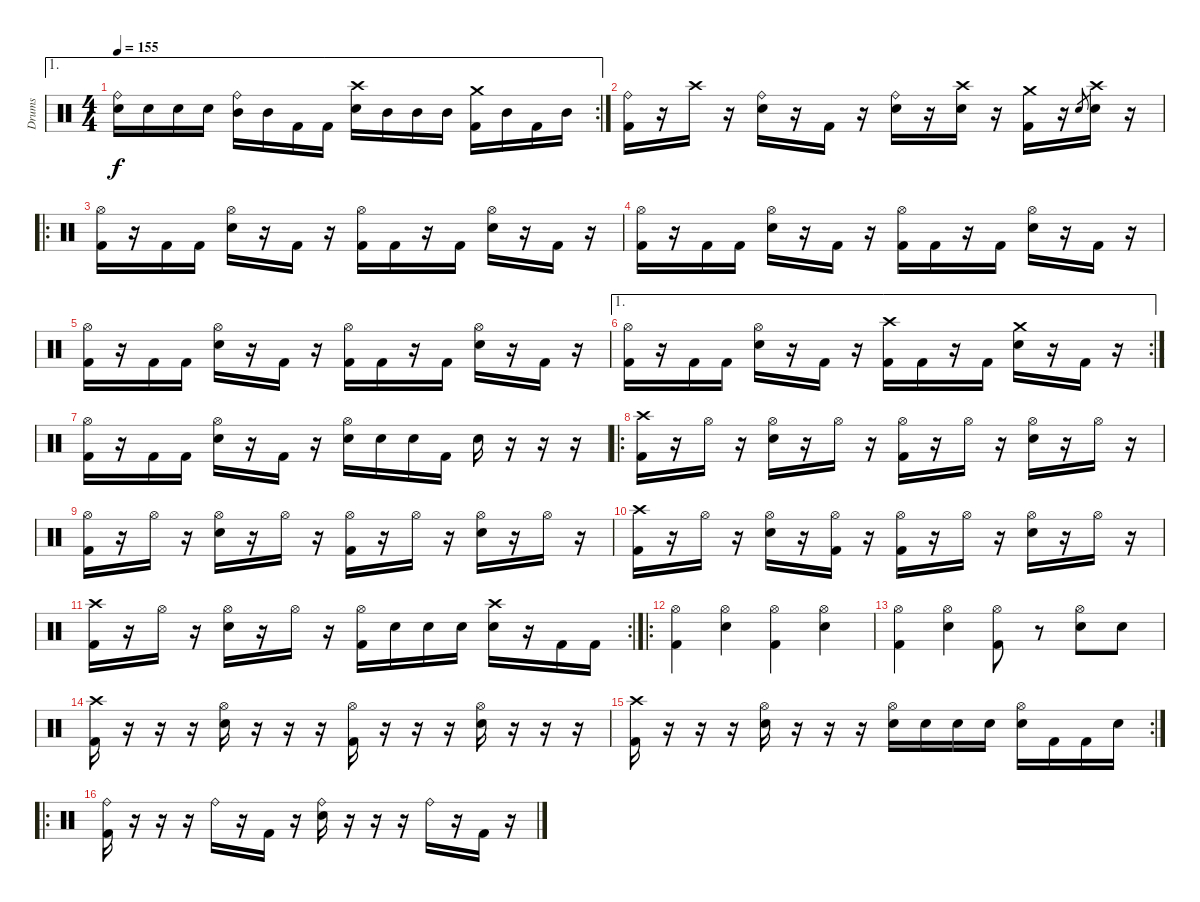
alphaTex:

\track ("Drums" "Drums") {instrument percussion}
\staff {score}
\articulation defaults
\ae 1
\rc 2
\ts (4 4)
\tempo 155
\clef neutral
\ks c
("Ride (bell)" "Electric Snare (hit)").16{dy f} "Electric Snare (hit)".16 "Electric Snare (hit)".16 "Electric Snare (hit)".16 ("Ride (bell)" "Mid Tom (hit)").16 "Mid Tom (hit)".16 "Kick (hit) 2".16 "Kick (hit) 2".16 ("Crash high (hit)" "Electric Snare (hit)").16 "Mid Tom (hit)".16 "Mid Tom (hit)".16 "Mid Tom (hit)".16 ("Crash medium (hit)" "Kick (hit) 2").16 "Mid Tom (hit)".16 "Kick (hit) 2".16 "Mid Tom (hit)".16 |
("Ride (bell)" "Kick (hit) 2").16 r.16 "Crash high (hit)".16 r.16 ("Ride (bell)" "Electric Snare (hit)").16 r.16 "Kick (hit) 2".16 r.16 ("Ride (bell)" "Electric Snare (hit)").16 r.16 ("Crash high (hit)" "Electric Snare (hit)").16 r.16 ("Crash medium (hit)" "Kick (hit) 2").16 r.16 "Electric Snare (hit)".8{gr} ("Crash high (hit)" "Electric Snare (hit)").16 r.16 |
\ro
("Hi-Hat (open)" "Kick (hit) 2").16 r.16 "Kick (hit) 2".16 "Kick (hit) 2".16 ("Hi-Hat (open)" "Electric Snare (hit)").16 r.16 "Kick (hit) 2".16 r.16 ("Hi-Hat (open)" "Kick (hit) 2").16 "Kick (hit) 2".16 r.16 "Kick (hit) 2".16 ("Hi-Hat (open)" "Electric Snare (hit)").16 r.16 "Kick (hit) 2".16 r.16 |
("Hi-Hat (open)" "Kick (hit) 2").16 r.16 "Kick (hit) 2".16 "Kick (hit) 2".16 ("Hi-Hat (open)" "Electric Snare (hit)").16 r.16 "Kick (hit) 2".16 r.16 ("Hi-Hat (open)" "Kick (hit) 2").16 "Kick (hit) 2".16 r.16 "Kick (hit) 2".16 ("Hi-Hat (open)" "Electric Snare (hit)").16 r.16 "Kick (hit) 2".16 r.16 |
("Hi-Hat (open)" "Kick (hit) 2").16 r.16 "Kick (hit) 2".16 "Kick (hit) 2".16 ("Hi-Hat (open)" "Electric Snare (hit)").16 r.16 "Kick (hit) 2".16 r.16 ("Hi-Hat (open)" "Kick (hit) 2").16 "Kick (hit) 2".16 r.16 "Kick (hit) 2".16 ("Hi-Hat (open)" "Electric Snare (hit)").16 r.16 "Kick (hit) 2".16 r.16 |
\ae 1
\rc 2
("Hi-Hat (open)" "Kick (hit) 2").16 r.16 "Kick (hit) 2".16 "Kick (hit) 2".16 ("Hi-Hat (open)" "Electric Snare (hit)").16 r.16 "Kick (hit) 2".16 r.16 ("Crash high (hit)" "Kick (hit) 2").16 "Kick (hit) 2".16 r.16 "Kick (hit) 2".16 ("Crash medium (hit)" "Electric Snare (hit)").16 r.16 "Kick (hit) 2".16 r.16 |
("Hi-Hat (open)" "Kick (hit) 2").16 r.16 "Kick (hit) 2".16 "Kick (hit) 2".16 ("Hi-Hat (open)" "Electric Snare (hit)").16 r.16 "Kick (hit) 2".16 r.16 ("Hi-Hat (open)" "Electric Snare (hit)").16 "Electric Snare (hit)".16 "Electric Snare (hit)".16 "Kick (hit) 2".16 "Electric Snare (hit)".16 r.16 r.16 r.16 |
\ro
("Crash high (hit)" "Kick (hit) 2").16 r.16 "Hi-Hat (open)".16 r.16 ("Hi-Hat (open)" "Electric Snare (hit)").16 r.16 "Hi-Hat (open)".16 r.16 ("Hi-Hat (open)" "Kick (hit) 2").16 r.16 "Hi-Hat (open)".16 r.16 ("Hi-Hat (open)" "Electric Snare (hit)").16 r.16 "Hi-Hat (open)".16 r.16 |
("Hi-Hat (open)" "Kick (hit) 2").16 r.16 "Hi-Hat (open)".16 r.16 ("Hi-Hat (open)" "Electric Snare (hit)").16 r.16 "Hi-Hat (open)".16 r.16 ("Hi-Hat (open)" "Kick (hit) 2").16 r.16 "Hi-Hat (open)".16 r.16 ("Hi-Hat (open)" "Electric Snare (hit)").16 r.16 "Hi-Hat (open)".16 r.16 |
("Crash high (hit)" "Kick (hit) 2").16 r.16 "Hi-Hat (open)".16 r.16 ("Hi-Hat (open)" "Electric Snare (hit)").16 r.16 ("Hi-Hat (open)" "Kick (hit) 2").16 r.16 ("Hi-Hat (open)" "Kick (hit) 2").16 r.16 "Hi-Hat (open)".16 r.16 ("Hi-Hat (open)" "Electric Snare (hit)").16 r.16 "Hi-Hat (open)".16 r.16 |
\rc 2
("Crash high (hit)" "Kick (hit) 2").16 r.16 "Hi-Hat (open)".16 r.16 ("Hi-Hat (open)" "Electric Snare (hit)").16 r.16 "Hi-Hat (open)".16 r.16 ("Hi-Hat (open)" "Kick (hit) 2").16 "Electric Snare (hit)".16 "Electric Snare (hit)".16 "Electric Snare (hit)".16 ("Electric Snare (hit)" "Crash high (hit)").16 r.16 "Kick (hit) 2".16 "Kick (hit) 2".16 |
\ro
("Hi-Hat (open)" "Kick (hit) 2").4 ("Hi-Hat (open)" "Electric Snare (hit)").4 ("Hi-Hat (open)" "Kick (hit) 2").4 ("Hi-Hat (open)" "Electric Snare (hit)").4 |
("Hi-Hat (open)" "Kick (hit) 2").4 ("Hi-Hat (open)" "Electric Snare (hit)").4 ("Hi-Hat (open)" "Kick (hit) 2").8 r.8 ("Hi-Hat (open)" "Electric Snare (hit)").8 "Electric Snare (hit)".8 |
("Crash high (hit)" "Kick (hit) 2").16 r.16 r.16 r.16 ("Hi-Hat (open)" "Electric Snare (hit)").16 r.16 r.16 r.16 ("Hi-Hat (open)" "Kick (hit) 2").16 r.16 r.16 r.16 ("Hi-Hat (open)" "Electric Snare (hit)").16 r.16 r.16 r.16 |
\rc 2
("Crash high (hit)" "Kick (hit) 2").16 r.16 r.16 r.16 ("Hi-Hat (open)" "Electric Snare (hit)").16 r.16 r.16 r.16 ("Hi-Hat (open)" "Electric Snare (hit)").16 "Electric Snare (hit)".16 "Electric Snare (hit)".16 "Electric Snare (hit)".16 ("Hi-Hat (open)" "Electric Snare (hit)").16 "Kick (hit) 2".16 "Kick (hit) 2".16 "Electric Snare (hit)".16 |
\ro
("Ride (bell)" "Kick (hit) 2").16 r.16 r.16 r.16 "Ride (bell)".16 r.16 "Kick (hit) 2".16 r.16 ("Ride (bell)" "Electric Snare (hit)").16 r.16 r.16 r.16 "Ride (bell)".16 r.16 "Kick (hit) 2".16 r.16
